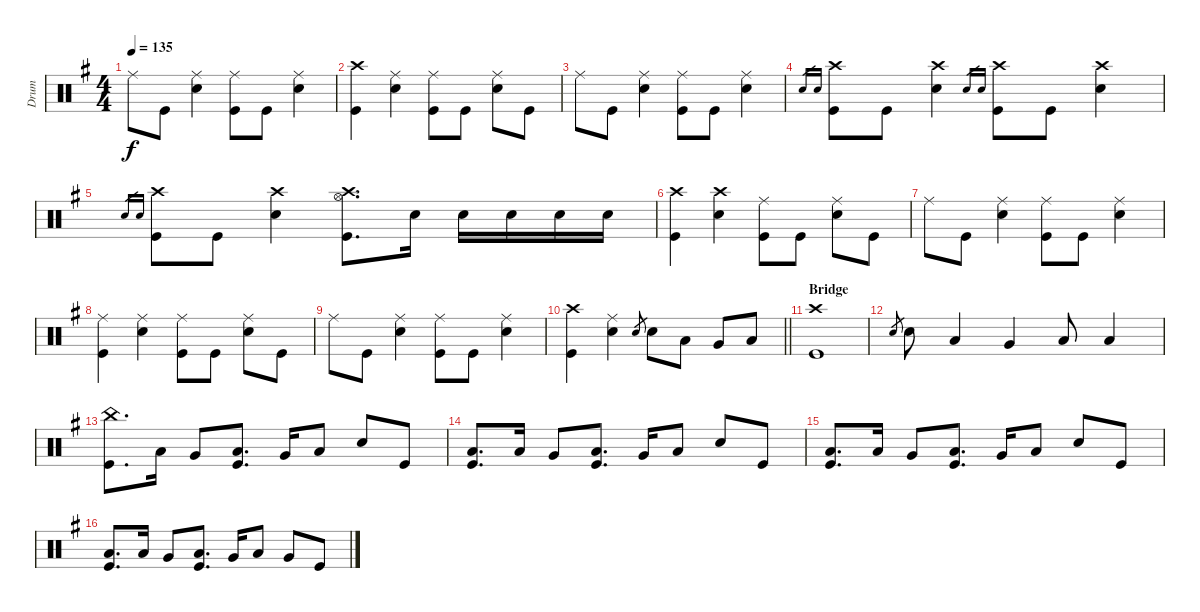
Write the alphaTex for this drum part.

\track ("Drum" "Drum") {instrument percussion}
\staff {score}
\articulation defaults
\ts (4 4)
\tempo 135
\clef neutral
\ks g "Ride (middle)".8{dy f} "Kick (hit)".8
("Snare (hit) 2" "Ride (middle)").4 ("Kick (hit)" "Ride (middle)").8 "Kick (hit)".8 ("Snare (hit) 2" "Ride (middle)").4 |
("Crash high (hit)" "Kick (hit)").4 ("Snare (hit) 2" "Ride (middle)").4 ("Ride (middle)" "Kick (hit)").8 "Kick (hit)".8 ("Snare (hit) 2" "Ride (middle)").8 "Kick (hit)".8 |
"Ride (middle)".8 "Kick (hit)".8 ("Snare (hit) 2" "Ride (middle)").4 ("Kick (hit)" "Ride (middle)").8 "Kick (hit)".8 ("Snare (hit) 2" "Ride (middle)").4 |
"Snare (hit) 2".16{gr} "Electric Snare (hit)".16{gr} ("Kick (hit)" "Crash high (hit)").8 "Kick (hit)".8 ("Snare (hit) 2" "Crash high (hit)").4 "Snare (hit) 2".16{gr} "Electric Snare (hit)".16{gr} ("Kick (hit)" "Crash high (hit)").8 "Kick (hit)".8 ("Snare (hit) 2" "Crash high (hit)").4 |
"Snare (hit) 2".16{gr} "Electric Snare (hit)".16{gr} ("Kick (hit)" "Crash high (hit)").8 "Kick (hit)".8 ("Snare (hit) 2" "Crash high (hit)").4 ("Hi-Hat (open)" "Crash high (hit)" "Kick (hit)").8{d} "Snare (hit) 2".16 "Snare (hit) 2".16 "Snare (hit) 2".16 "Snare (hit) 2".16 "Snare (hit) 2".16 |
("Crash high (hit)" "Kick (hit)").4 ("Crash high (hit)" "Snare (hit) 2").4 ("Ride (middle)" "Kick (hit)").8 "Kick (hit)".8 ("Snare (hit) 2" "Ride (middle)").8 "Kick (hit)".8 |
"Ride (middle)".8 "Kick (hit)".8 ("Snare (hit) 2" "Ride (middle)").4 ("Kick (hit)" "Ride (middle)").8 "Kick (hit)".8 ("Snare (hit) 2" "Ride (middle)").4 |
("Ride (middle)" "Kick (hit)").4 ("Snare (hit) 2" "Ride (middle)").4 ("Ride (middle)" "Kick (hit)").8 "Kick (hit)".8 ("Snare (hit) 2" "Ride (middle)").8 "Kick (hit)".8 |
"Ride (middle)".8 "Kick (hit)".8 ("Snare (hit) 2" "Ride (middle)").4 ("Kick (hit)" "Ride (middle)").8 "Kick (hit)".8 ("Snare (hit) 2" "Ride (middle)").4 |
\barLineRight lightlight
("Crash high (hit)" "Kick (hit)").4 ("Snare (hit) 2" "Ride (middle)").4 "Snare (hit) 2".8{gr} "Snare (hit) 2".8 "Low Tom (hit)".8 "Very Low Tom (hit)".8 "Low Floor Tom (hit)".8 |
\section ("" "Bridge")
("Crash high (hit)" "Kick (hit)").1 |
"Snare (hit) 2".8{gr} "Snare (hit) 2".8 "Low Tom (hit)".4 "Very Low Tom (hit)".4 "Low Floor Tom (hit)".8 "Low Floor Tom (hit)".4 |
("Kick (hit)" "China (hit)").8{d} "Low Tom (hit)".16 "Very Low Tom (hit)".8 ("Low Tom (hit)" "Kick (hit)").8{d} "Very Low Tom (hit)".16 "Low Floor Tom (hit)".8 "Snare (hit) 2".8 "Kick (hit)".8 |
("Low Floor Tom (hit)" "Kick (hit)").8{d} "Low Tom (hit)".16 "Very Low Tom (hit)".8 ("Low Tom (hit)" "Kick (hit)").8{d} "Very Low Tom (hit)".16 "Low Floor Tom (hit)".8 "Snare (hit) 2".8 "Kick (hit)".8 |
("Low Floor Tom (hit)" "Kick (hit)").8{d} "Low Tom (hit)".16 "Very Low Tom (hit)".8 ("Low Tom (hit)" "Kick (hit)").8{d} "Very Low Tom (hit)".16 "Low Floor Tom (hit)".8 "Snare (hit) 2".8 "Kick (hit)".8 |
("Low Floor Tom (hit)" "Kick (hit)").8{d} "Low Tom (hit)".16 "Very Low Tom (hit)".8 ("Low Tom (hit)" "Kick (hit)").8{d} "Very Low Tom (hit)".16 "Low Floor Tom (hit)".8 "Very Low Tom (hit)".8 "Kick (hit)".8
